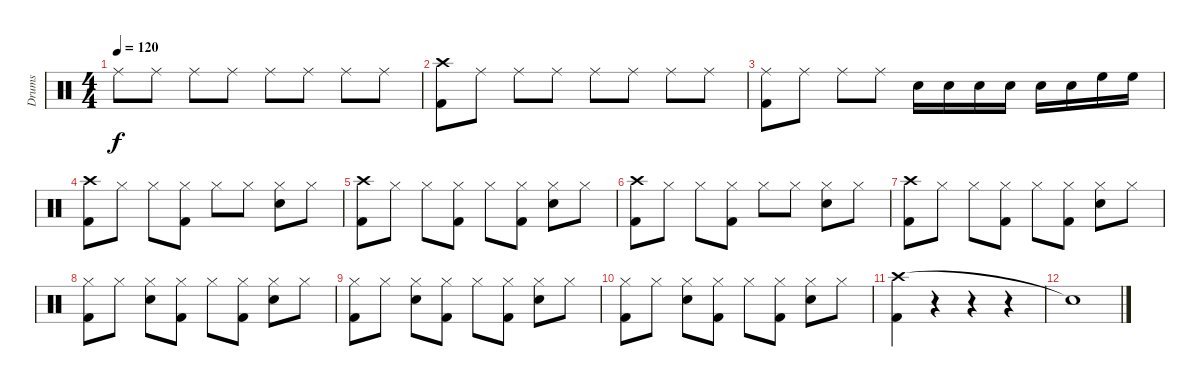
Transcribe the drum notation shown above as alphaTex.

\track ("Drums" "Drums") {instrument percussion}
\staff {score}
\articulation defaults
\ts (4 4)
\tempo 120
\clef neutral
\ks c "Ride (middle)".8{dy f} "Ride (middle)".8 "Ride (middle)".8 "Ride (middle)".8 "Ride (middle)".8 "Ride (middle)".8 "Ride (middle)".8 "Ride (middle)".8
|
("Crash high (hit)" "Kick (hit) 2").8 "Ride (middle)".8 "Ride (middle)".8 "Ride (middle)".8 "Ride (middle)".8 "Ride (middle)".8 "Ride (middle)".8 "Ride (middle)".8 |
("Ride (middle)" "Kick (hit) 2").8 "Ride (middle)".8 "Ride (middle)".8{volume 6} "Ride (middle)".8 "Snare (hit) 2".16{volume 10} "Snare (hit) 2".16 "Snare (hit) 2".16{volume 12} "Snare (hit) 2".16 "Snare (hit) 2".16{volume 14} "Snare (hit) 2".16 "High Floor Tom (hit)".16 "High Floor Tom (hit)".16 |
("Crash high (hit)" "Kick (hit) 2").8 "Hi-Hat (closed)".8 "Hi-Hat (closed)".8 ("Hi-Hat (closed)" "Kick (hit) 2").8 "Hi-Hat (closed)".8 "Hi-Hat (closed)".8 ("Hi-Hat (closed)" "Snare (hit) 2").8 "Hi-Hat (closed)".8 |
("Crash high (hit)" "Kick (hit) 2").8 "Hi-Hat (closed)".8 "Hi-Hat (closed)".8 ("Hi-Hat (closed)" "Kick (hit) 2").8 "Hi-Hat (closed)".8 ("Hi-Hat (closed)" "Kick (hit) 2").8 ("Hi-Hat (closed)" "Snare (hit) 2").8 "Hi-Hat (closed)".8 |
("Crash high (hit)" "Kick (hit) 2").8 "Hi-Hat (closed)".8 "Hi-Hat (closed)".8 ("Hi-Hat (closed)" "Kick (hit) 2").8 "Hi-Hat (closed)".8 "Hi-Hat (closed)".8 ("Hi-Hat (closed)" "Snare (hit) 2").8 "Hi-Hat (closed)".8 |
("Crash high (hit)" "Kick (hit) 2").8 "Hi-Hat (closed)".8 "Hi-Hat (closed)".8 ("Hi-Hat (closed)" "Kick (hit) 2").8 "Hi-Hat (closed)".8 ("Hi-Hat (closed)" "Kick (hit) 2").8 ("Hi-Hat (closed)" "Snare (hit) 2").8 "Hi-Hat (closed)".8 |
("Hi-Hat (closed)" "Kick (hit) 2").8 "Hi-Hat (closed)".8 ("Hi-Hat (closed)" "Snare (hit) 2").8 ("Hi-Hat (closed)" "Kick (hit) 2").8 "Hi-Hat (closed)".8 ("Hi-Hat (closed)" "Kick (hit) 2").8 ("Hi-Hat (closed)" "Snare (hit) 2").8 "Hi-Hat (closed)".8 |
("Hi-Hat (closed)" "Kick (hit) 2").8 "Hi-Hat (closed)".8 ("Hi-Hat (closed)" "Snare (hit) 2").8 ("Hi-Hat (closed)" "Kick (hit) 2").8 "Hi-Hat (closed)".8 ("Hi-Hat (closed)" "Kick (hit) 2").8 ("Hi-Hat (closed)" "Snare (hit) 2").8 "Hi-Hat (closed)".8 |
("Hi-Hat (closed)" "Kick (hit) 2").8 "Hi-Hat (closed)".8 ("Hi-Hat (closed)" "Snare (hit) 2").8 ("Hi-Hat (closed)" "Kick (hit) 2").8 "Hi-Hat (closed)".8 ("Hi-Hat (closed)" "Kick (hit) 2").8 ("Hi-Hat (closed)" "Snare (hit) 2").8 "Hi-Hat (closed)".8 |
("Crash high (hit)" "Kick (hit) 2").4 r.4 r.4 r.4 |
"Snare (hit)"{t}.1
